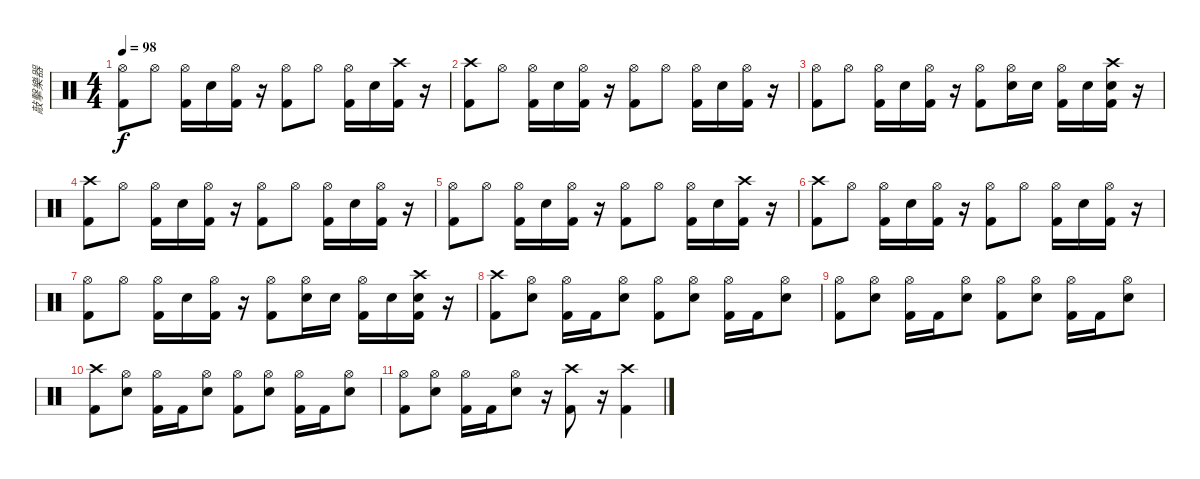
\track ("敲擊樂器" "敲擊樂器") {instrument percussion}
\staff {score}
\articulation defaults
\ts (4 4)
\tempo 98
\clef neutral
\ks c
("Kick (hit) 2" "Hi-Hat (open)").8{dy f} "Hi-Hat (open)".8 ("Kick (hit) 2" "Hi-Hat (open)").16 "Snare (hit) 2".16 ("Kick (hit) 2" "Hi-Hat (open)").16 r.16 ("Kick (hit) 2" "Hi-Hat (open)").8 "Hi-Hat (open)".8 ("Kick (hit) 2" "Hi-Hat (open)").16 "Snare (hit) 2".16 ("Kick (hit) 2" "Crash high (hit)").16 r.16 |
("Kick (hit) 2" "Crash high (hit)").8 "Hi-Hat (open)".8 ("Kick (hit) 2" "Hi-Hat (open)").16 "Snare (hit) 2".16 ("Kick (hit) 2" "Hi-Hat (open)").16 r.16 ("Kick (hit) 2" "Hi-Hat (open)").8 "Hi-Hat (open)".8 ("Kick (hit) 2" "Hi-Hat (open)").16 "Snare (hit) 2".16 ("Kick (hit) 2" "Hi-Hat (open)").16 r.16 |
("Kick (hit) 2" "Hi-Hat (open)").8 "Hi-Hat (open)".8 ("Kick (hit) 2" "Hi-Hat (open)").16 "Snare (hit) 2".16 ("Kick (hit) 2" "Hi-Hat (open)").16 r.16 ("Kick (hit) 2" "Hi-Hat (open)").8 ("Snare (hit) 2" "Hi-Hat (open)").16 "Snare (hit) 2".16 ("Kick (hit) 2" "Hi-Hat (open)").16 "Snare (hit) 2".16 ("Snare (hit) 2" "Kick (hit) 2" "Crash high (hit)").16 r.16 |
("Kick (hit) 2" "Crash high (hit)").8 "Hi-Hat (open)".8 ("Kick (hit) 2" "Hi-Hat (open)").16 "Snare (hit) 2".16 ("Kick (hit) 2" "Hi-Hat (open)").16 r.16 ("Kick (hit) 2" "Hi-Hat (open)").8 "Hi-Hat (open)".8 ("Kick (hit) 2" "Hi-Hat (open)").16 "Snare (hit) 2".16 ("Kick (hit) 2" "Hi-Hat (open)").16 r.16 |
("Kick (hit) 2" "Hi-Hat (open)").8 "Hi-Hat (open)".8 ("Kick (hit) 2" "Hi-Hat (open)").16 "Snare (hit) 2".16 ("Kick (hit) 2" "Hi-Hat (open)").16 r.16 ("Kick (hit) 2" "Hi-Hat (open)").8 "Hi-Hat (open)".8 ("Kick (hit) 2" "Hi-Hat (open)").16 "Snare (hit) 2".16 ("Kick (hit) 2" "Crash high (hit)").16 r.16 |
("Kick (hit) 2" "Crash high (hit)").8 "Hi-Hat (open)".8 ("Kick (hit) 2" "Hi-Hat (open)").16 "Snare (hit) 2".16 ("Kick (hit) 2" "Hi-Hat (open)").16 r.16 ("Kick (hit) 2" "Hi-Hat (open)").8 "Hi-Hat (open)".8 ("Kick (hit) 2" "Hi-Hat (open)").16 "Snare (hit) 2".16 ("Kick (hit) 2" "Hi-Hat (open)").16 r.16 |
("Kick (hit) 2" "Hi-Hat (open)").8 "Hi-Hat (open)".8 ("Kick (hit) 2" "Hi-Hat (open)").16 "Snare (hit) 2".16 ("Kick (hit) 2" "Hi-Hat (open)").16 r.16 ("Kick (hit) 2" "Hi-Hat (open)").8 ("Snare (hit) 2" "Hi-Hat (open)").16 "Snare (hit) 2".16 ("Kick (hit) 2" "Hi-Hat (open)").16 "Snare (hit) 2".16 ("Snare (hit) 2" "Kick (hit) 2" "Crash high (hit)").16 r.16 |
("Kick (hit) 2" "Crash high (hit)").8 ("Snare (hit) 2" "Hi-Hat (open)").8 ("Kick (hit) 2" "Hi-Hat (open)").16 "Kick (hit) 2".16 ("Snare (hit) 2" "Hi-Hat (open)").8 ("Kick (hit) 2" "Hi-Hat (open)").8 ("Snare (hit) 2" "Hi-Hat (open)").8 ("Kick (hit) 2" "Hi-Hat (open)").16 "Kick (hit) 2".16 ("Snare (hit) 2" "Hi-Hat (open)").8 |
("Kick (hit) 2" "Hi-Hat (open)").8 ("Snare (hit) 2" "Hi-Hat (open)").8 ("Kick (hit) 2" "Hi-Hat (open)").16 "Kick (hit) 2".16 ("Snare (hit) 2" "Hi-Hat (open)").8 ("Kick (hit) 2" "Hi-Hat (open)").8 ("Snare (hit) 2" "Hi-Hat (open)").8 ("Kick (hit) 2" "Hi-Hat (open)").16 "Kick (hit) 2".16 ("Snare (hit) 2" "Hi-Hat (open)").8 |
("Kick (hit) 2" "Crash high (hit)").8 ("Snare (hit) 2" "Hi-Hat (open)").8 ("Kick (hit) 2" "Hi-Hat (open)").16 "Kick (hit) 2".16 ("Snare (hit) 2" "Hi-Hat (open)").8 ("Kick (hit) 2" "Hi-Hat (open)").8 ("Snare (hit) 2" "Hi-Hat (open)").8 ("Kick (hit) 2" "Hi-Hat (open)").16 "Kick (hit) 2".16 ("Snare (hit) 2" "Hi-Hat (open)").8 |
("Kick (hit) 2" "Hi-Hat (open)").8 ("Snare (hit) 2" "Hi-Hat (open)").8 ("Kick (hit) 2" "Hi-Hat (open)").16 "Kick (hit) 2".16 ("Snare (hit) 2" "Hi-Hat (open)").8 r.16 ("Kick (hit) 2" "Crash high (hit)").8 r.16 ("Kick (hit) 2" "Crash high (hit)").4
